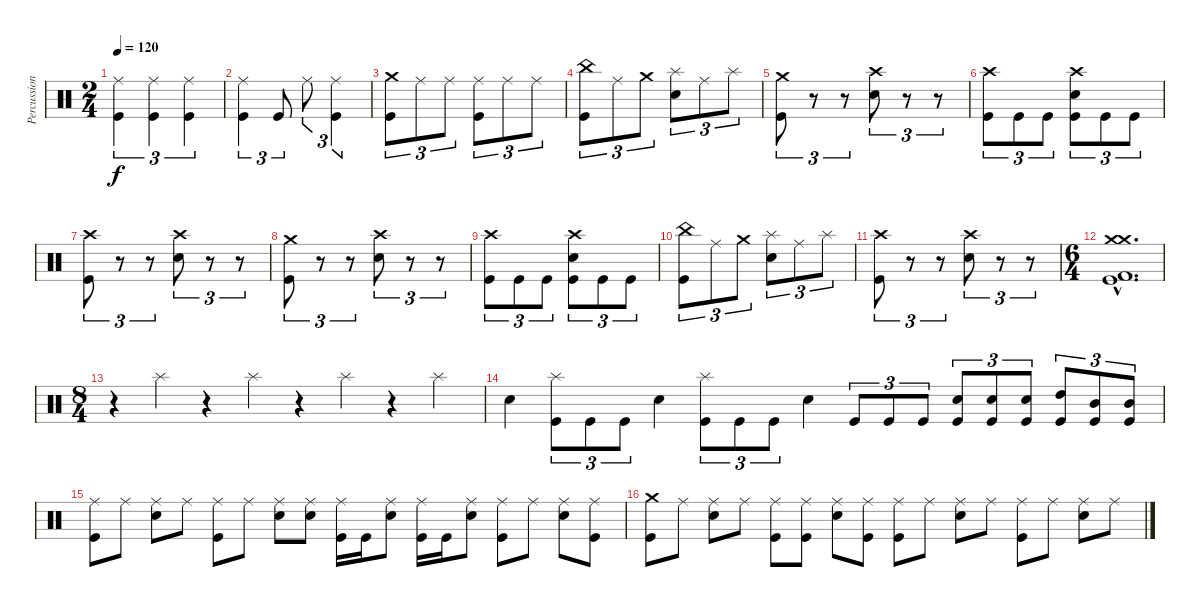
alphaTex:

\track ("Percussioni" "Percussion") {instrument percussion}
\staff {score}
\articulation defaults
\ts (2 4)
\tempo 120
\clef neutral
\ks c
("Kick (hit)" "Ride (middle)").4{tu (3 2) dy f} ("Kick (hit)" "Ride (middle)").4{tu (3 2)} ("Kick (hit)" "Ride (middle)").4{tu (3 2)} |
("Kick (hit)" "Ride (middle)").4{tu (3 2)} "Kick (hit)".8{tu (3 2)} "Ride (middle)".8{tu (3 2)} ("Kick (hit)" "Ride (middle)").4{tu (3 2)} |
("Kick (hit)" "Crash medium (hit)").8{tu (3 2)} "Ride (middle)".8{tu (3 2)} "Ride (middle)".8{tu (3 2)} ("Kick (hit)" "Ride (middle)").8{tu (3 2)} "Ride (middle)".8{tu (3 2)} "Ride (middle)".8{tu (3 2)} |
("Kick (hit)" "China (hit)").8{tu (3 2)} "Ride (middle)".8{tu (3 2)} "Crash medium (hit)".8{tu (3 2)} ("Snare (hit) 2" "Splash (hit)").8{tu (3 2)} "Ride (middle)".8{tu (3 2)} "Splash (hit)".8{tu (3 2)} |
("Kick (hit)" "Crash medium (hit)").8{tu (3 2)} r.8{tu (3 2)} r.8{tu (3 2)} ("Snare (hit) 2" "Crash high (hit)").8{tu (3 2)} r.8{tu (3 2)} r.8{tu (3 2)} |
("Kick (hit)" "Crash high (hit)").8{tu (3 2)} "Kick (hit)".8{tu (3 2)} "Kick (hit)".8{tu (3 2)} ("Kick (hit)" "Snare (hit) 2" "Crash high (hit)").8{tu (3 2)} "Kick (hit)".8{tu (3 2)} "Kick (hit)".8{tu (3 2)} |
("Kick (hit)" "Crash high (hit)").8{tu (3 2)} r.8{tu (3 2)} r.8{tu (3 2)} ("Snare (hit) 2" "Crash high (hit)").8{tu (3 2)} r.8{tu (3 2)} r.8{tu (3 2)} |
("Kick (hit)" "Crash medium (hit)").8{tu (3 2)} r.8{tu (3 2)} r.8{tu (3 2)} ("Snare (hit) 2" "Crash high (hit)").8{tu (3 2)} r.8{tu (3 2)} r.8{tu (3 2)} |
("Kick (hit)" "Crash high (hit)").8{tu (3 2)} "Kick (hit)".8{tu (3 2)} "Kick (hit)".8{tu (3 2)} ("Kick (hit)" "Snare (hit) 2" "Crash high (hit)").8{tu (3 2)} "Kick (hit)".8{tu (3 2)} "Kick (hit)".8{tu (3 2)} |
("Kick (hit)" "China (hit)").8{tu (3 2)} "Ride (middle)".8{tu (3 2)} "Crash medium (hit)".8{tu (3 2)} ("Snare (hit) 2" "Splash (hit)").8{tu (3 2)} "Ride (middle)".8{tu (3 2)} "Splash (hit)".8{tu (3 2)} |
("Kick (hit)" "Crash high (hit)").8{tu (3 2)} r.8{tu (3 2)} r.8{tu (3 2)} ("Snare (hit) 2" "Crash high (hit)").8{tu (3 2)} r.8{tu (3 2)} r.8{tu (3 2)} |
\ts (6 4)
("Crash medium (hit)"{hac} "Crash medium (hit)"{hac} "Kick (hit)"{hac} "Kick (hit) 2"{hac}).1{d} |
\ts (8 4)
r.4 "Splash (hit)".4 r.4 "Splash (hit)".4 r.4 "Splash (hit)".4 r.4 "Splash (hit)".4 |
"Snare (hit) 2".4 ("Kick (hit)" "Splash (hit)").8{tu (3 2)} "Kick (hit)".8{tu (3 2)} "Kick (hit)".8{tu (3 2)} "Snare (hit) 2".4 ("Kick (hit)" "Splash (hit)").8{tu (3 2)} "Kick (hit)".8{tu (3 2)} "Kick (hit)".8{tu (3 2)} "Snare (hit) 2".4 "Kick (hit)".8{tu (3 2)} "Kick (hit)".8{tu (3 2)} "Kick (hit)".8{tu (3 2)} ("Kick (hit)" "Snare (hit) 2").8{tu (3 2)} ("Kick (hit)" "Snare (hit) 2").8{tu (3 2)} ("Kick (hit)" "Snare (hit) 2").8{tu (3 2)} ("Kick (hit)" "High Tom (hit)").8{tu (3 2)} ("Kick (hit)" "Mid Tom (hit)").8{tu (3 2)} ("Kick (hit)" "Mid Tom (hit)").8{tu (3 2)} |
("Kick (hit)" "Ride (middle)").8 "Ride (middle)".8 ("Snare (hit) 2" "Ride (middle)").8 "Ride (middle)".8 ("Kick (hit)" "Ride (middle)").8 "Ride (middle)".8 ("Snare (hit) 2" "Ride (middle)").8 ("Snare (hit) 2" "Ride (middle)").8 ("Kick (hit)" "Ride (middle)").16 "Kick (hit)".16 ("Snare (hit) 2" "Ride (middle)").8 ("Kick (hit)" "Ride (middle)").16 "Kick (hit)".16 ("Snare (hit) 2" "Ride (middle)").8 ("Kick (hit)" "Ride (middle)").8 "Ride (middle)".8 ("Snare (hit) 2" "Ride (middle)").8 ("Kick (hit)" "Ride (middle)").8 |
("Kick (hit)" "Crash medium (hit)").8 "Ride (middle)".8 ("Snare (hit) 2" "Ride (middle)").8 "Ride (middle)".8 ("Kick (hit)" "Ride (middle)").8 ("Kick (hit)" "Ride (middle)").8 ("Snare (hit) 2" "Ride (middle)").8 ("Kick (hit)" "Ride (middle)").8 ("Kick (hit)" "Ride (middle)").8 "Ride (middle)".8 ("Snare (hit) 2" "Ride (middle)").8 "Ride (middle)".8 ("Kick (hit)" "Ride (middle)").8 "Ride (middle)".8 ("Snare (hit) 2" "Ride (middle)").8 "Ride (middle)".8
